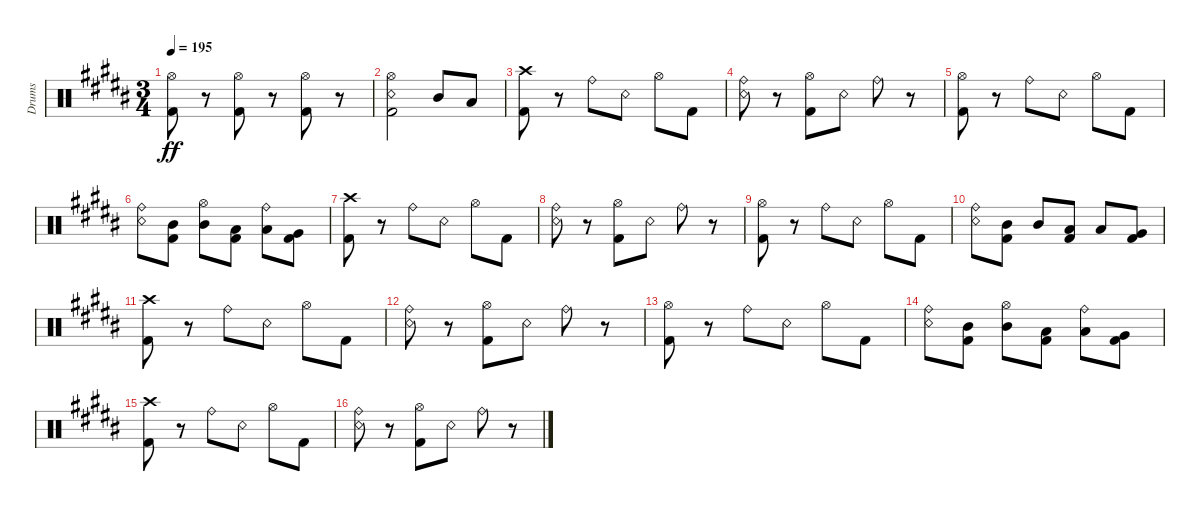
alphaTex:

\bracketExtendMode groupsimilarinstruments
\otherSystemsTrackNameOrientation horizontal
\track ("Drumkit" "Drums") {instrument percussion}
\staff {score}
\articulation defaults
\ts (3 4)
\tempo 195
\clef neutral
\ks b
("Kick (hit) 2"{acc bb} "Hi-Hat (open)"{acc bb}).8{dy ff beam Down} r.8{beam Down} ("Hi-Hat (open)"{acc bb} "Kick (hit) 2"{acc bb}).8{beam Down} r.8{beam Down} ("Hi-Hat (open)"{acc bb} "Kick (hit) 2"{acc bb}).8{beam Down} r.8{beam Down} |
("Snare (rim shot)"{acc bb} "Kick (hit) 2"{acc bb} "Hi-Hat (open)"{acc bb}).2{beam Down} "Mid Tom (hit)"{acc bb}.8{beam Up} "Low Tom (hit)"{acc bb}.8{beam Up} |
("Kick (hit) 2"{acc bb} "Crash high (hit)"{acc bb}).8{beam Down} r.8{beam Down} "Ride (bell)"{acc bb}.8{beam Down} "Snare (rim shot)"{acc bb}.8{beam Down} "Hi-Hat (open)"{acc bb}.8{beam Down} "Kick (hit) 2"{acc bb}.8{beam Down} |
("Snare (rim shot)"{acc bb} "Ride (bell)"{acc bb}).8{beam Down} r.8{beam Down} ("Kick (hit) 2"{acc bb} "Hi-Hat (open)"{acc bb}).8{beam Down} "Snare (rim shot)"{acc bb}.8{beam Down} "Ride (bell)"{acc bb}.8{beam Down} r.8{beam Down} |
("Kick (hit) 2"{acc bb} "Hi-Hat (open)"{acc bb}).8{beam Down} r.8{beam Down} "Ride (bell)"{acc bb}.8{beam Down} "Snare (rim shot)"{acc bb}.8{beam Down} "Hi-Hat (open)"{acc bb}.8{beam Down} "Kick (hit) 2"{acc bb}.8{beam Down} |
("Snare (rim shot)"{acc bb} "Ride (bell)"{acc bb}).8{beam Down} ("Kick (hit) 2"{acc bb} "Mid Tom (hit)"{acc bb}).8{beam Down} ("Hi-Hat (open)"{acc bb} "Mid Tom (hit)"{acc bb}).8{beam Down} ("Low Tom (hit)"{acc bb} "Kick (hit) 2"{acc bb}).8{beam Down} ("Low Tom (hit)"{acc bb} "Ride (bell)"{acc bb}).8{beam Down} ("Very Low Tom (hit)"{acc bb} "Kick (hit) 2"{acc bb}).8{beam Down} |
("Kick (hit) 2"{acc bb} "Crash high (hit)"{acc bb}).8{beam Down} r.8{beam Down} "Ride (bell)"{acc bb}.8{beam Down} "Snare (rim shot)"{acc bb}.8{beam Down} "Hi-Hat (open)"{acc bb}.8{beam Down} "Kick (hit) 2"{acc bb}.8{beam Down} |
("Snare (rim shot)"{acc bb} "Ride (bell)"{acc bb}).8{beam Down} r.8{beam Down} ("Kick (hit) 2"{acc bb} "Hi-Hat (open)"{acc bb}).8{beam Down} "Snare (rim shot)"{acc bb}.8{beam Down} "Ride (bell)"{acc bb}.8{beam Down} r.8{beam Down} |
("Kick (hit) 2"{acc bb} "Hi-Hat (open)"{acc bb}).8{beam Down} r.8{beam Down} "Ride (bell)"{acc bb}.8{beam Down} "Snare (rim shot)"{acc bb}.8{beam Down} "Hi-Hat (open)"{acc bb}.8{beam Down} "Kick (hit) 2"{acc bb}.8{beam Down} |
("Snare (rim shot)"{acc bb} "Ride (bell)"{acc bb}).8{beam Down} ("Kick (hit) 2"{acc bb} "Mid Tom (hit)"{acc bb}).8{beam Down} "Mid Tom (hit)"{acc bb}.8{beam Up} ("Low Tom (hit)"{acc bb} "Kick (hit) 2"{acc bb}).8{beam Up} "Low Tom (hit)"{acc bb}.8{beam Up} ("Very Low Tom (hit)"{acc bb} "Kick (hit) 2"{acc bb}).8{beam Up} |
("Kick (hit) 2"{acc bb} "Crash high (hit)"{acc bb}).8{beam Down} r.8{beam Down} "Ride (bell)"{acc bb}.8{beam Down} "Snare (rim shot)"{acc bb}.8{beam Down} "Hi-Hat (open)"{acc bb}.8{beam Down} "Kick (hit) 2"{acc bb}.8{beam Down} |
("Snare (rim shot)"{acc bb} "Ride (bell)"{acc bb}).8{beam Down} r.8{beam Down} ("Kick (hit) 2"{acc bb} "Hi-Hat (open)"{acc bb}).8{beam Down} "Snare (rim shot)"{acc bb}.8{beam Down} "Ride (bell)"{acc bb}.8{beam Down} r.8{beam Down} |
("Kick (hit) 2"{acc bb} "Hi-Hat (open)"{acc bb}).8{beam Down} r.8{beam Down} "Ride (bell)"{acc bb}.8{beam Down} "Snare (rim shot)"{acc bb}.8{beam Down} "Hi-Hat (open)"{acc bb}.8{beam Down} "Kick (hit) 2"{acc bb}.8{beam Down} |
("Snare (rim shot)"{acc bb} "Ride (bell)"{acc bb}).8{beam Down} ("Kick (hit) 2"{acc bb} "Mid Tom (hit)"{acc bb}).8{beam Down} ("Hi-Hat (open)"{acc bb} "Mid Tom (hit)"{acc bb}).8{beam Down} ("Low Tom (hit)"{acc bb} "Kick (hit) 2"{acc bb}).8{beam Down} ("Low Tom (hit)"{acc bb} "Ride (bell)"{acc bb}).8{beam Down} ("Very Low Tom (hit)"{acc bb} "Kick (hit) 2"{acc bb}).8{beam Down} |
("Kick (hit) 2"{acc bb} "Crash high (hit)"{acc bb}).8{beam Down} r.8{beam Down} "Ride (bell)"{acc bb}.8{beam Down} "Snare (rim shot)"{acc bb}.8{beam Down} "Hi-Hat (open)"{acc bb}.8{beam Down} "Kick (hit) 2"{acc bb}.8{beam Down} |
("Snare (rim shot)"{acc bb} "Ride (bell)"{acc bb}).8{beam Down} r.8{beam Down} ("Kick (hit) 2"{acc bb} "Hi-Hat (open)"{acc bb}).8{beam Down} "Snare (rim shot)"{acc bb}.8{beam Down} "Ride (bell)"{acc bb}.8{beam Down} r.8{beam Down}
